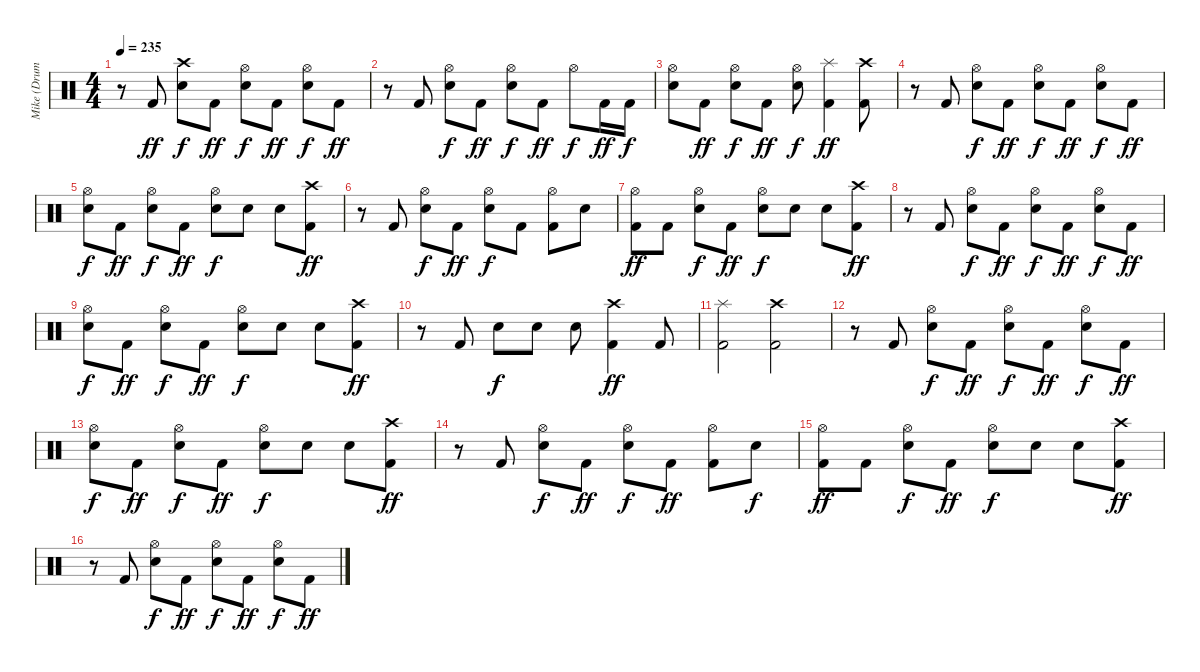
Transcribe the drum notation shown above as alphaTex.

\track ("Mike (Drums)" "Mike (Drum") {instrument percussion}
\staff {score}
\articulation defaults
\ts (4 4)
\tempo 235
\clef neutral
\ks c
r.8{dy f} "Kick (hit) 2".8{dy ff} ("Crash high (hit)" "Electric Snare (hit)").8{dy f} "Kick (hit) 2".8{dy ff} ("Hi-Hat (open)" "Electric Snare (hit)").8{dy f} "Kick (hit) 2".8{dy ff} ("Hi-Hat (open)" "Electric Snare (hit)").8{dy f} "Kick (hit) 2".8{dy ff} |
r.8 "Kick (hit) 2".8 ("Hi-Hat (open)" "Electric Snare (hit)").8{dy f} "Kick (hit) 2".8{dy ff} ("Hi-Hat (open)" "Electric Snare (hit)").8{dy f} "Kick (hit) 2".8{dy ff} "Hi-Hat (open)".8{dy f} "Kick (hit) 2".16{dy ff} "Kick (hit) 2".16{dy f} |
("Hi-Hat (open)" "Electric Snare (hit)").8 "Kick (hit) 2".8{dy ff} ("Hi-Hat (open)" "Electric Snare (hit)").8{dy f} "Kick (hit) 2".8{dy ff} ("Hi-Hat (open)" "Electric Snare (hit)").8{dy f} ("Splash (hit)" "Kick (hit) 2").4{dy ff} ("Crash high (hit)" "Kick (hit) 2").8 |
r.8 "Kick (hit) 2".8 ("Hi-Hat (open)" "Electric Snare (hit)").8{dy f} "Kick (hit) 2".8{dy ff} ("Hi-Hat (open)" "Electric Snare (hit)").8{dy f} "Kick (hit) 2".8{dy ff} ("Hi-Hat (open)" "Electric Snare (hit)").8{dy f} "Kick (hit) 2".8{dy ff} |
("Hi-Hat (open)" "Electric Snare (hit)").8{dy f} "Kick (hit) 2".8{dy ff} ("Hi-Hat (open)" "Electric Snare (hit)").8{dy f} "Kick (hit) 2".8{dy ff} ("Hi-Hat (open)" "Electric Snare (hit)").8{dy f} "Electric Snare (hit)".8 "Electric Snare (hit)".8 ("Crash high (hit)" "Kick (hit) 2").8{dy ff} |
r.8 "Kick (hit) 2".8 ("Hi-Hat (open)" "Electric Snare (hit)").8{dy f} "Kick (hit) 2".8{dy ff} ("Hi-Hat (open)" "Electric Snare (hit)").8{dy f} "Kick (hit) 2".8 ("Hi-Hat (open)" "Kick (hit) 2").8 "Electric Snare (hit)".8 |
("Hi-Hat (open)" "Kick (hit) 2").8{dy ff} "Kick (hit) 2".8 ("Hi-Hat (open)" "Electric Snare (hit)").8{dy f} "Kick (hit) 2".8{dy ff} ("Hi-Hat (open)" "Electric Snare (hit)").8{dy f} "Electric Snare (hit)".8 "Electric Snare (hit)".8 ("Crash high (hit)" "Kick (hit) 2").8{dy ff} |
r.8 "Kick (hit) 2".8 ("Hi-Hat (open)" "Electric Snare (hit)").8{dy f} "Kick (hit) 2".8{dy ff} ("Hi-Hat (open)" "Electric Snare (hit)").8{dy f} "Kick (hit) 2".8{dy ff} ("Hi-Hat (open)" "Electric Snare (hit)").8{dy f} "Kick (hit) 2".8{dy ff} |
("Hi-Hat (open)" "Electric Snare (hit)").8{dy f} "Kick (hit) 2".8{dy ff} ("Hi-Hat (open)" "Electric Snare (hit)").8{dy f} "Kick (hit) 2".8{dy ff} ("Hi-Hat (open)" "Electric Snare (hit)").8{dy f} "Electric Snare (hit)".8 "Electric Snare (hit)".8 ("Crash high (hit)" "Kick (hit) 2").8{dy ff} |
r.8 "Kick (hit) 2".8 "Electric Snare (hit)".8{dy f} "Electric Snare (hit)".8 "Electric Snare (hit)".8 ("Crash high (hit)" "Kick (hit) 2").4{dy ff} "Kick (hit) 2".8 |
("Splash (hit)" "Kick (hit) 2").2 ("Crash high (hit)" "Kick (hit) 2").2 |
r.8 "Kick (hit) 2".8 ("Hi-Hat (open)" "Electric Snare (hit)").8{dy f} "Kick (hit) 2".8{dy ff} ("Hi-Hat (open)" "Electric Snare (hit)").8{dy f} "Kick (hit) 2".8{dy ff} ("Hi-Hat (open)" "Electric Snare (hit)").8{dy f} "Kick (hit) 2".8{dy ff} |
("Hi-Hat (open)" "Electric Snare (hit)").8{dy f} "Kick (hit) 2".8{dy ff} ("Hi-Hat (open)" "Electric Snare (hit)").8{dy f} "Kick (hit) 2".8{dy ff} ("Hi-Hat (open)" "Electric Snare (hit)").8{dy f} "Electric Snare (hit)".8 "Electric Snare (hit)".8 ("Crash high (hit)" "Kick (hit) 2").8{dy ff} |
r.8 "Kick (hit) 2".8 ("Hi-Hat (open)" "Electric Snare (hit)").8{dy f} "Kick (hit) 2".8{dy ff} ("Hi-Hat (open)" "Electric Snare (hit)").8{dy f} "Kick (hit) 2".8{dy ff} ("Hi-Hat (open)" "Kick (hit) 2").8 "Electric Snare (hit)".8{dy f} |
("Hi-Hat (open)" "Kick (hit) 2").8{dy ff} "Kick (hit) 2".8 ("Hi-Hat (open)" "Electric Snare (hit)").8{dy f} "Kick (hit) 2".8{dy ff} ("Hi-Hat (open)" "Electric Snare (hit)").8{dy f} "Electric Snare (hit)".8 "Electric Snare (hit)".8 ("Crash high (hit)" "Kick (hit) 2").8{dy ff} |
r.8 "Kick (hit) 2".8 ("Hi-Hat (open)" "Electric Snare (hit)").8{dy f} "Kick (hit) 2".8{dy ff} ("Hi-Hat (open)" "Electric Snare (hit)").8{dy f} "Kick (hit) 2".8{dy ff} ("Hi-Hat (open)" "Electric Snare (hit)").8{dy f} "Kick (hit) 2".8{dy ff}
